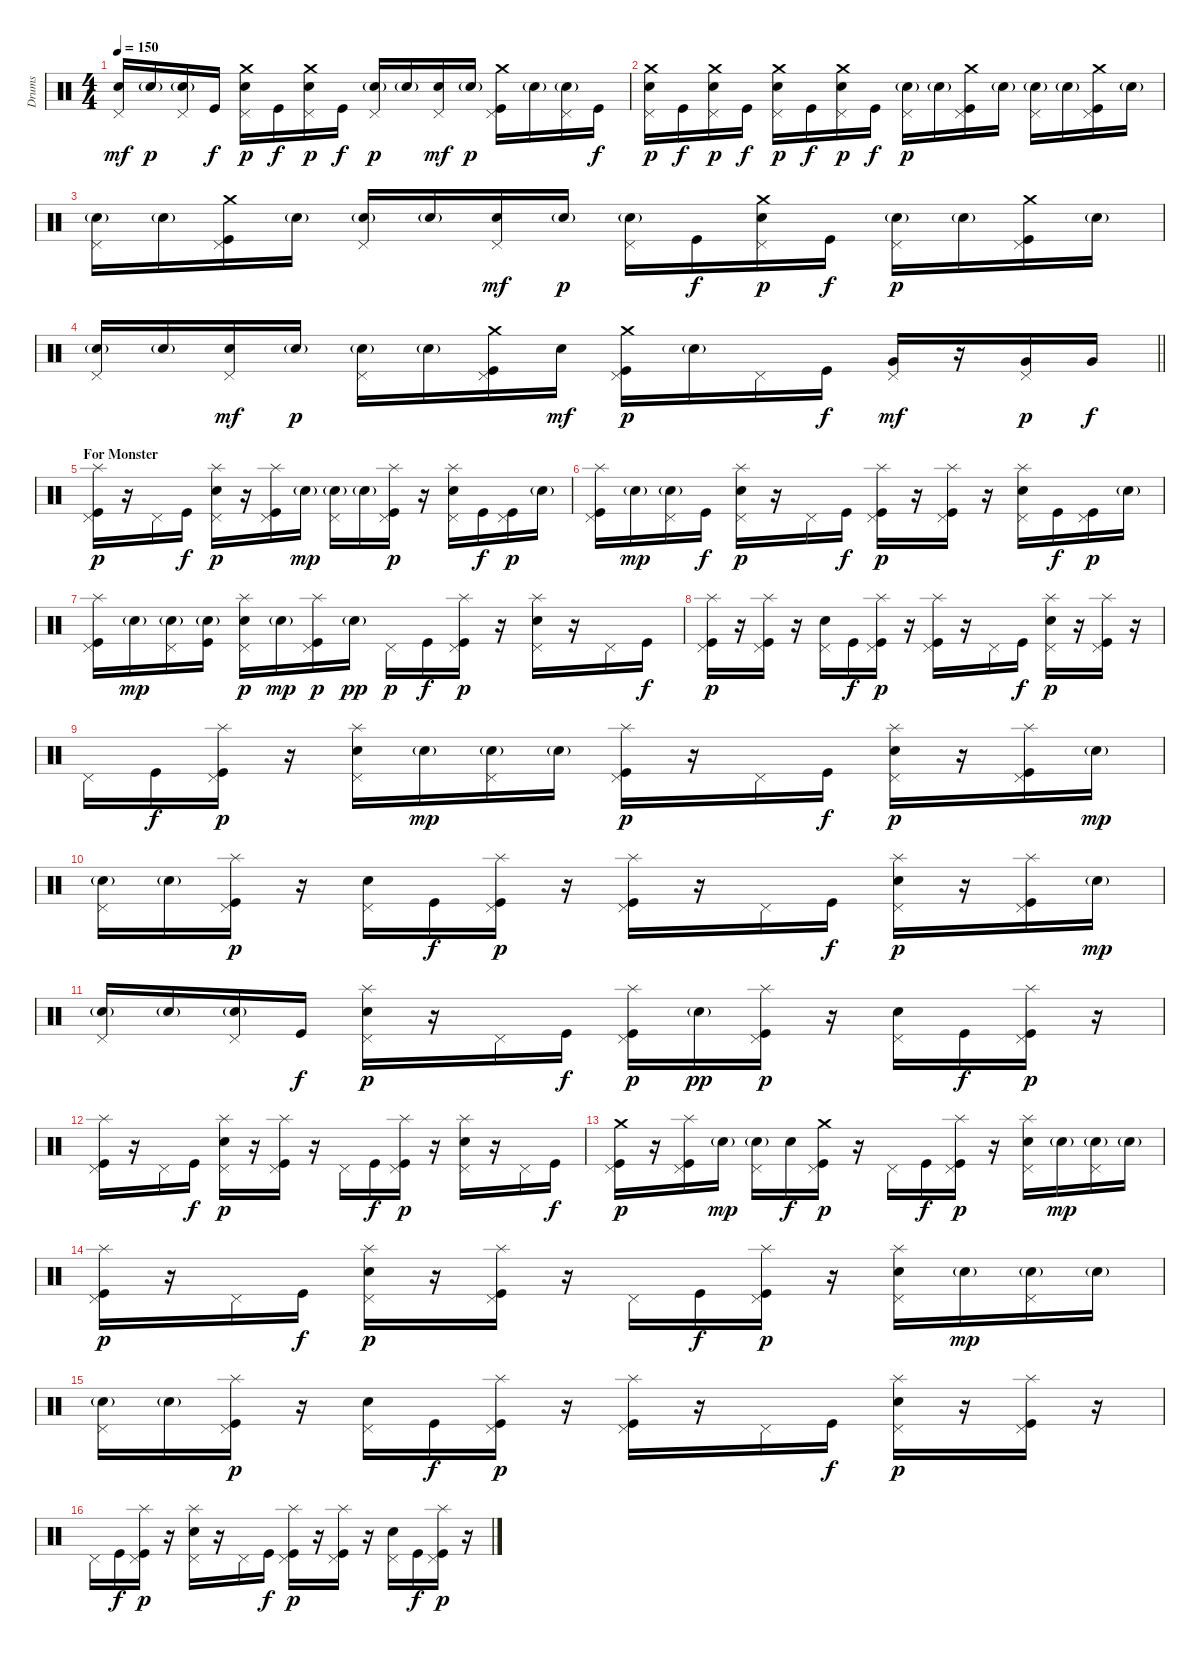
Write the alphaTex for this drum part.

\track ("Drums" "Drums") {instrument percussion}
\staff {score}
\articulation defaults
\ts (4 4)
\tempo 150
\clef neutral
\ks c
("Pedal Hi-Hat (hit)" "Electric Snare (hit)").16{dy mf} "Electric Snare (hit)"{g}.16{dy p} ("Pedal Hi-Hat (hit)" "Electric Snare (hit)"{g}).16 "Kick (hit)".16{dy f} ("Crash medium (hit)" "Pedal Hi-Hat (hit)" "Electric Snare (hit)").16{dy p} "Kick (hit)".16{dy f} ("Crash medium (hit)" "Pedal Hi-Hat (hit)" "Electric Snare (hit)").16{dy p} "Kick (hit)".16{dy f} ("Pedal Hi-Hat (hit)" "Electric Snare (hit)"{g}).16{dy p} "Electric Snare (hit)"{g}.16 ("Pedal Hi-Hat (hit)" "Electric Snare (hit)").16{dy mf} "Electric Snare (hit)"{g}.16{dy p} ("Crash medium (hit)" "Pedal Hi-Hat (hit)" "Kick (hit)").16 "Electric Snare (hit)"{g}.16 ("Pedal Hi-Hat (hit)" "Electric Snare (hit)"{g}).16 "Kick (hit)".16{dy f} |
("Crash medium (hit)" "Pedal Hi-Hat (hit)" "Electric Snare (hit)").16{dy p} "Kick (hit)".16{dy f} ("Crash medium (hit)" "Pedal Hi-Hat (hit)" "Electric Snare (hit)").16{dy p} "Kick (hit)".16{dy f} ("Crash medium (hit)" "Pedal Hi-Hat (hit)" "Electric Snare (hit)").16{dy p} "Kick (hit)".16{dy f} ("Crash medium (hit)" "Pedal Hi-Hat (hit)" "Electric Snare (hit)").16{dy p} "Kick (hit)".16{dy f} ("Pedal Hi-Hat (hit)" "Electric Snare (hit)"{g}).16{dy p} "Electric Snare (hit)"{g}.16 ("Crash medium (hit)" "Pedal Hi-Hat (hit)" "Kick (hit)").16 "Electric Snare (hit)"{g}.16 ("Pedal Hi-Hat (hit)" "Electric Snare (hit)"{g}).16 "Electric Snare (hit)"{g}.16 ("Crash medium (hit)" "Pedal Hi-Hat (hit)" "Kick (hit)").16 "Electric Snare (hit)"{g}.16 |
("Pedal Hi-Hat (hit)" "Electric Snare (hit)"{g}).16 "Electric Snare (hit)"{g}.16 ("Crash medium (hit)" "Pedal Hi-Hat (hit)" "Kick (hit)").16 "Electric Snare (hit)"{g}.16 ("Pedal Hi-Hat (hit)" "Electric Snare (hit)"{g}).16 "Electric Snare (hit)"{g}.16 ("Pedal Hi-Hat (hit)" "Electric Snare (hit)").16{dy mf} "Electric Snare (hit)"{g}.16{dy p} ("Pedal Hi-Hat (hit)" "Electric Snare (hit)"{g}).16 "Kick (hit)".16{dy f} ("Crash medium (hit)" "Pedal Hi-Hat (hit)" "Electric Snare (hit)").16{dy p} "Kick (hit)".16{dy f} ("Pedal Hi-Hat (hit)" "Electric Snare (hit)"{g}).16{dy p} "Electric Snare (hit)"{g}.16 ("Crash medium (hit)" "Pedal Hi-Hat (hit)" "Kick (hit)").16 "Electric Snare (hit)"{g}.16 |
\barLineRight lightlight
("Pedal Hi-Hat (hit)" "Electric Snare (hit)"{g}).16 "Electric Snare (hit)"{g}.16 ("Pedal Hi-Hat (hit)" "Electric Snare (hit)").16{dy mf} "Electric Snare (hit)"{g}.16{dy p} ("Pedal Hi-Hat (hit)" "Electric Snare (hit)"{g}).16 "Electric Snare (hit)"{g}.16 ("Crash medium (hit)" "Pedal Hi-Hat (hit)" "Kick (hit)").16 "Electric Snare (hit)".16{dy mf} ("Crash medium (hit)" "Pedal Hi-Hat (hit)" "Kick (hit)").16{dy p} "Electric Snare (hit)"{g}.16 "Pedal Hi-Hat (hit)".16 "Kick (hit)".16{dy f} ("Pedal Hi-Hat (hit)" "Very Low Tom (hit)").16{dy mf} r.16 ("Pedal Hi-Hat (hit)" "Very Low Tom (hit)").16{dy p} "Very Low Tom (hit)".16{dy f} |
\section ("" "For Monster")
("Splash (hit)" "Pedal Hi-Hat (hit)" "Kick (hit)").16{dy p} r.16 "Pedal Hi-Hat (hit)".16 "Kick (hit)".16{dy f} ("Splash (hit)" "Pedal Hi-Hat (hit)" "Electric Snare (hit)").16{dy p} r.16 ("Splash (hit)" "Pedal Hi-Hat (hit)" "Kick (hit)").16 "Electric Snare (hit)"{g}.16{dy mp} ("Pedal Hi-Hat (hit)" "Electric Snare (hit)"{g}).16 "Electric Snare (hit)"{g}.16 ("Splash (hit)" "Pedal Hi-Hat (hit)" "Kick (hit)").16{dy p} r.16 ("Splash (hit)" "Pedal Hi-Hat (hit)" "Electric Snare (hit)").16 "Kick (hit)".16{dy f} ("Pedal Hi-Hat (hit)" "Kick (hit)").16{dy p} "Electric Snare (hit)"{g}.16 |
("Splash (hit)" "Pedal Hi-Hat (hit)" "Kick (hit)").16 "Electric Snare (hit)"{g}.16{dy mp} ("Pedal Hi-Hat (hit)" "Electric Snare (hit)"{g}).16 "Kick (hit)".16{dy f} ("Splash (hit)" "Pedal Hi-Hat (hit)" "Electric Snare (hit)").16{dy p} r.16 "Pedal Hi-Hat (hit)".16 "Kick (hit)".16{dy f} ("Splash (hit)" "Pedal Hi-Hat (hit)" "Kick (hit)").16{dy p} r.16 ("Splash (hit)" "Pedal Hi-Hat (hit)" "Kick (hit)").16 r.16 ("Splash (hit)" "Pedal Hi-Hat (hit)" "Electric Snare (hit)").16 "Kick (hit)".16{dy f} ("Pedal Hi-Hat (hit)" "Kick (hit)").16{dy p} "Electric Snare (hit)"{g}.16 |
("Splash (hit)" "Pedal Hi-Hat (hit)" "Kick (hit)").16 "Electric Snare (hit)"{g}.16{dy mp} ("Pedal Hi-Hat (hit)" "Electric Snare (hit)"{g}).16 ("Electric Snare (hit)"{g} "Kick (hit)").16 ("Splash (hit)" "Pedal Hi-Hat (hit)" "Electric Snare (hit)").16{dy p} "Electric Snare (hit)"{g}.16{dy mp} ("Splash (hit)" "Pedal Hi-Hat (hit)" "Kick (hit)").16{dy p} "Electric Snare (hit)"{g}.16{dy pp} "Pedal Hi-Hat (hit)".16{dy p} "Kick (hit)".16{dy f} ("Splash (hit)" "Pedal Hi-Hat (hit)" "Kick (hit)").16{dy p} r.16 ("Splash (hit)" "Pedal Hi-Hat (hit)" "Electric Snare (hit)").16 r.16 "Pedal Hi-Hat (hit)".16 "Kick (hit)".16{dy f} |
("Splash (hit)" "Pedal Hi-Hat (hit)" "Kick (hit)").16{dy p} r.16 ("Splash (hit)" "Pedal Hi-Hat (hit)" "Kick (hit)").16 r.16 ("Pedal Hi-Hat (hit)" "Electric Snare (hit)").16 "Kick (hit)".16{dy f} ("Splash (hit)" "Pedal Hi-Hat (hit)" "Kick (hit)").16{dy p} r.16 ("Splash (hit)" "Pedal Hi-Hat (hit)" "Kick (hit)").16 r.16 "Pedal Hi-Hat (hit)".16 "Kick (hit)".16{dy f} ("Splash (hit)" "Pedal Hi-Hat (hit)" "Electric Snare (hit)").16{dy p} r.16 ("Splash (hit)" "Pedal Hi-Hat (hit)" "Kick (hit)").16 r.16 |
"Pedal Hi-Hat (hit)".16 "Kick (hit)".16{dy f} ("Splash (hit)" "Pedal Hi-Hat (hit)" "Kick (hit)").16{dy p} r.16 ("Splash (hit)" "Pedal Hi-Hat (hit)" "Electric Snare (hit)").16 "Electric Snare (hit)"{g}.16{dy mp} ("Pedal Hi-Hat (hit)" "Electric Snare (hit)"{g}).16 "Electric Snare (hit)"{g}.16 ("Splash (hit)" "Pedal Hi-Hat (hit)" "Kick (hit)").16{dy p} r.16 "Pedal Hi-Hat (hit)".16 "Kick (hit)".16{dy f} ("Splash (hit)" "Pedal Hi-Hat (hit)" "Electric Snare (hit)").16{dy p} r.16 ("Splash (hit)" "Pedal Hi-Hat (hit)" "Kick (hit)").16 "Electric Snare (hit)"{g}.16{dy mp} |
("Pedal Hi-Hat (hit)" "Electric Snare (hit)"{g}).16 "Electric Snare (hit)"{g}.16 ("Splash (hit)" "Pedal Hi-Hat (hit)" "Kick (hit)").16{dy p} r.16 ("Pedal Hi-Hat (hit)" "Electric Snare (hit)").16 "Kick (hit)".16{dy f} ("Splash (hit)" "Pedal Hi-Hat (hit)" "Kick (hit)").16{dy p} r.16 ("Splash (hit)" "Pedal Hi-Hat (hit)" "Kick (hit)").16 r.16 "Pedal Hi-Hat (hit)".16 "Kick (hit)".16{dy f} ("Splash (hit)" "Pedal Hi-Hat (hit)" "Electric Snare (hit)").16{dy p} r.16 ("Splash (hit)" "Pedal Hi-Hat (hit)" "Kick (hit)").16 "Electric Snare (hit)"{g}.16{dy mp} |
("Pedal Hi-Hat (hit)" "Electric Snare (hit)"{g}).16 "Electric Snare (hit)"{g}.16 ("Pedal Hi-Hat (hit)" "Electric Snare (hit)"{g}).16 "Kick (hit)".16{dy f} ("Splash (hit)" "Pedal Hi-Hat (hit)" "Electric Snare (hit)").16{dy p} r.16 "Pedal Hi-Hat (hit)".16 "Kick (hit)".16{dy f} ("Splash (hit)" "Pedal Hi-Hat (hit)" "Kick (hit)").16{dy p} "Electric Snare (hit)"{g}.16{dy pp} ("Splash (hit)" "Pedal Hi-Hat (hit)" "Kick (hit)").16{dy p} r.16 ("Pedal Hi-Hat (hit)" "Electric Snare (hit)").16 "Kick (hit)".16{dy f} ("Splash (hit)" "Pedal Hi-Hat (hit)" "Kick (hit)").16{dy p} r.16 |
("Splash (hit)" "Pedal Hi-Hat (hit)" "Kick (hit)").16 r.16 "Pedal Hi-Hat (hit)".16 "Kick (hit)".16{dy f} ("Splash (hit)" "Pedal Hi-Hat (hit)" "Electric Snare (hit)").16{dy p} r.16 ("Splash (hit)" "Pedal Hi-Hat (hit)" "Kick (hit)").16 r.16 "Pedal Hi-Hat (hit)".16 "Kick (hit)".16{dy f} ("Splash (hit)" "Pedal Hi-Hat (hit)" "Kick (hit)").16{dy p} r.16 ("Splash (hit)" "Pedal Hi-Hat (hit)" "Electric Snare (hit)").16 r.16 "Pedal Hi-Hat (hit)".16 "Kick (hit)".16{dy f} |
("Crash medium (hit)" "Pedal Hi-Hat (hit)" "Kick (hit)").16{dy p} r.16 ("Splash (hit)" "Pedal Hi-Hat (hit)" "Kick (hit)").16 "Electric Snare (hit)"{g}.16{dy mp} ("Pedal Hi-Hat (hit)" "Electric Snare (hit)"{g}).16 "Electric Snare (hit)".16{dy f} ("Crash medium (hit)" "Pedal Hi-Hat (hit)" "Kick (hit)").16{dy p} r.16 "Pedal Hi-Hat (hit)".16 "Kick (hit)".16{dy f} ("Splash (hit)" "Pedal Hi-Hat (hit)" "Kick (hit)").16{dy p} r.16 ("Splash (hit)" "Pedal Hi-Hat (hit)" "Electric Snare (hit)").16 "Electric Snare (hit)"{g}.16{dy mp} ("Pedal Hi-Hat (hit)" "Electric Snare (hit)"{g}).16 "Electric Snare (hit)"{g}.16 |
("Splash (hit)" "Pedal Hi-Hat (hit)" "Kick (hit)").16{dy p} r.16 "Pedal Hi-Hat (hit)".16 "Kick (hit)".16{dy f} ("Splash (hit)" "Pedal Hi-Hat (hit)" "Electric Snare (hit)").16{dy p} r.16 ("Splash (hit)" "Pedal Hi-Hat (hit)" "Kick (hit)").16 r.16 "Pedal Hi-Hat (hit)".16 "Kick (hit)".16{dy f} ("Splash (hit)" "Pedal Hi-Hat (hit)" "Kick (hit)").16{dy p} r.16 ("Splash (hit)" "Pedal Hi-Hat (hit)" "Electric Snare (hit)").16 "Electric Snare (hit)"{g}.16{dy mp} ("Pedal Hi-Hat (hit)" "Electric Snare (hit)"{g}).16 "Electric Snare (hit)"{g}.16 |
("Pedal Hi-Hat (hit)" "Electric Snare (hit)"{g}).16 "Electric Snare (hit)"{g}.16 ("Splash (hit)" "Pedal Hi-Hat (hit)" "Kick (hit)").16{dy p} r.16 ("Pedal Hi-Hat (hit)" "Electric Snare (hit)").16 "Kick (hit)".16{dy f} ("Splash (hit)" "Pedal Hi-Hat (hit)" "Kick (hit)").16{dy p} r.16 ("Splash (hit)" "Pedal Hi-Hat (hit)" "Kick (hit)").16 r.16 "Pedal Hi-Hat (hit)".16 "Kick (hit)".16{dy f} ("Splash (hit)" "Pedal Hi-Hat (hit)" "Electric Snare (hit)").16{dy p} r.16 ("Splash (hit)" "Pedal Hi-Hat (hit)" "Kick (hit)").16 r.16 |
"Pedal Hi-Hat (hit)".16 "Kick (hit)".16{dy f} ("Splash (hit)" "Pedal Hi-Hat (hit)" "Kick (hit)").16{dy p} r.16 ("Splash (hit)" "Pedal Hi-Hat (hit)" "Electric Snare (hit)").16 r.16 "Pedal Hi-Hat (hit)".16 "Kick (hit)".16{dy f} ("Splash (hit)" "Pedal Hi-Hat (hit)" "Kick (hit)").16{dy p} r.16 ("Splash (hit)" "Pedal Hi-Hat (hit)" "Kick (hit)").16 r.16 ("Pedal Hi-Hat (hit)" "Electric Snare (hit)").16 "Kick (hit)".16{dy f} ("Splash (hit)" "Pedal Hi-Hat (hit)" "Kick (hit)").16{dy p} r.16
